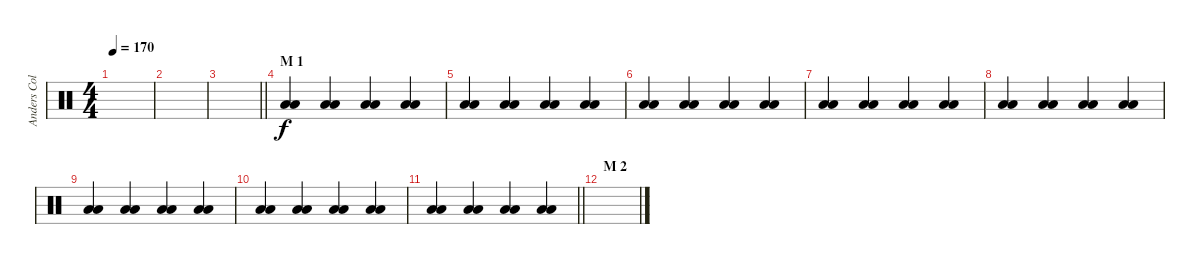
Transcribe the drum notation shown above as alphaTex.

\track ("Anders Colsefni" "Anders Col") {instrument percussion}
\staff {score}
\articulation defaults
\ts (4 4)
\tempo 170
\clef neutral
\ks c
|
|
\barLineRight lightlight
|
\section ("" "M 1")
("Low Floor Tom (hit)" "Low Floor Tom (hit)").4 ("Low Floor Tom (hit)" "Low Floor Tom (hit)").4 ("Low Floor Tom (hit)" "Low Floor Tom (hit)").4 ("Low Floor Tom (hit)" "Low Floor Tom (hit)").4 |
("Low Floor Tom (hit)" "Low Floor Tom (hit)").4 ("Low Floor Tom (hit)" "Low Floor Tom (hit)").4 ("Low Floor Tom (hit)" "Low Floor Tom (hit)").4 ("Low Floor Tom (hit)" "Low Floor Tom (hit)").4 |
("Low Floor Tom (hit)" "Low Floor Tom (hit)").4 ("Low Floor Tom (hit)" "Low Floor Tom (hit)").4 ("Low Floor Tom (hit)" "Low Floor Tom (hit)").4 ("Low Floor Tom (hit)" "Low Floor Tom (hit)").4 |
("Low Floor Tom (hit)" "Low Floor Tom (hit)").4 ("Low Floor Tom (hit)" "Low Floor Tom (hit)").4 ("Low Floor Tom (hit)" "Low Floor Tom (hit)").4 ("Low Floor Tom (hit)" "Low Floor Tom (hit)").4 |
("Low Floor Tom (hit)" "Low Floor Tom (hit)").4 ("Low Floor Tom (hit)" "Low Floor Tom (hit)").4 ("Low Floor Tom (hit)" "Low Floor Tom (hit)").4 ("Low Floor Tom (hit)" "Low Floor Tom (hit)").4 |
("Low Floor Tom (hit)" "Low Floor Tom (hit)").4 ("Low Floor Tom (hit)" "Low Floor Tom (hit)").4 ("Low Floor Tom (hit)" "Low Floor Tom (hit)").4 ("Low Floor Tom (hit)" "Low Floor Tom (hit)").4 |
("Low Floor Tom (hit)" "Low Floor Tom (hit)").4 ("Low Floor Tom (hit)" "Low Floor Tom (hit)").4 ("Low Floor Tom (hit)" "Low Floor Tom (hit)").4 ("Low Floor Tom (hit)" "Low Floor Tom (hit)").4 |
\barLineRight lightlight
("Low Floor Tom (hit)" "Low Floor Tom (hit)").4 ("Low Floor Tom (hit)" "Low Floor Tom (hit)").4 ("Low Floor Tom (hit)" "Low Floor Tom (hit)").4 ("Low Floor Tom (hit)" "Low Floor Tom (hit)").4 |
\section ("" "M 2")
